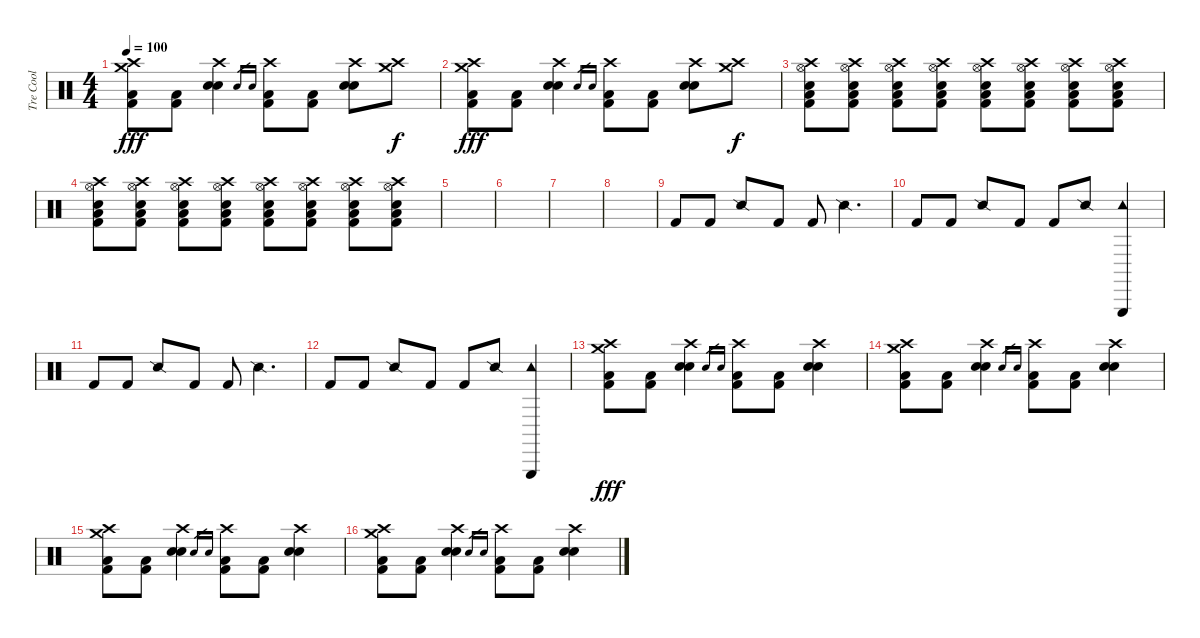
\track ("Tre Cool" "Tre Cool") {instrument percussion}
\staff {score}
\articulation defaults
\ts (4 4)
\tempo 100
\clef neutral
\ks c
("Crash high (hit)" "Crash medium (hit)" "Kick (hit) 2" "Low Floor Tom (hit)").8{dy fff} ("Kick (hit) 2" "Low Floor Tom (hit)").8 ("Crash high (hit)" "Electric Snare (hit)" "Electric Snare (hit)").4 "Electric Snare (hit)".16{gr} "Electric Snare (hit)".16{gr} ("Crash high (hit)" "Kick (hit) 2" "Low Floor Tom (hit)").8 ("Kick (hit) 2" "Low Floor Tom (hit)").8 ("Crash high (hit)" "Electric Snare (hit)" "Electric Snare (hit)").8 ("Crash high (hit)" "Crash medium (hit)").8{dy f} |
("Crash high (hit)" "Crash medium (hit)" "Kick (hit) 2" "Low Floor Tom (hit)").8{dy fff} ("Kick (hit) 2" "Low Floor Tom (hit)").8 ("Crash high (hit)" "Electric Snare (hit)" "Electric Snare (hit)").4 "Electric Snare (hit)".16{gr} "Electric Snare (hit)".16{gr} ("Crash high (hit)" "Kick (hit) 2" "Low Floor Tom (hit)").8 ("Kick (hit) 2" "Low Floor Tom (hit)").8 ("Crash high (hit)" "Electric Snare (hit)" "Electric Snare (hit)").8 ("Crash high (hit)" "Crash medium (hit)").8{dy f} |
("Crash high (hit)" "Hi-Hat (open)" "Electric Snare (hit)" "Kick (hit) 2" "Low Floor Tom (hit)").8 ("Crash high (hit)" "Hi-Hat (open)" "Electric Snare (hit)" "Kick (hit) 2" "Low Floor Tom (hit)").8 ("Crash high (hit)" "Hi-Hat (open)" "Electric Snare (hit)" "Kick (hit) 2" "Low Floor Tom (hit)").8 ("Crash high (hit)" "Hi-Hat (open)" "Electric Snare (hit)" "Kick (hit) 2" "Low Floor Tom (hit)").8 ("Crash high (hit)" "Hi-Hat (open)" "Electric Snare (hit)" "Kick (hit) 2" "Low Floor Tom (hit)").8 ("Crash high (hit)" "Hi-Hat (open)" "Electric Snare (hit)" "Kick (hit) 2" "Low Floor Tom (hit)").8 ("Crash high (hit)" "Hi-Hat (open)" "Electric Snare (hit)" "Kick (hit) 2" "Low Floor Tom (hit)").8 ("Crash high (hit)" "Hi-Hat (open)" "Electric Snare (hit)" "Kick (hit) 2" "Low Floor Tom (hit)").8 |
("Crash high (hit)" "Hi-Hat (open)" "Electric Snare (hit)" "Kick (hit) 2" "Low Floor Tom (hit)").8 ("Crash high (hit)" "Hi-Hat (open)" "Electric Snare (hit)" "Kick (hit) 2" "Low Floor Tom (hit)").8 ("Crash high (hit)" "Hi-Hat (open)" "Electric Snare (hit)" "Kick (hit) 2" "Low Floor Tom (hit)").8 ("Crash high (hit)" "Hi-Hat (open)" "Electric Snare (hit)" "Kick (hit) 2" "Low Floor Tom (hit)").8 ("Crash high (hit)" "Hi-Hat (open)" "Electric Snare (hit)" "Kick (hit) 2" "Low Floor Tom (hit)").8 ("Crash high (hit)" "Hi-Hat (open)" "Electric Snare (hit)" "Kick (hit) 2" "Low Floor Tom (hit)").8 ("Crash high (hit)" "Hi-Hat (open)" "Electric Snare (hit)" "Kick (hit) 2" "Low Floor Tom (hit)").8 ("Crash high (hit)" "Hi-Hat (open)" "Electric Snare (hit)" "Kick (hit) 2" "Low Floor Tom (hit)").8 |
|
|
|
|
"Kick (hit) 2".8 "Kick (hit) 2".8 "Snare (side stick) 2".8 "Kick (hit) 2".8 "Kick (hit) 2".8 "Snare (side stick) 2".4{d} |
"Kick (hit) 2".8 "Kick (hit) 2".8 "Snare (side stick) 2".8 "Kick (hit) 2".8 "Kick (hit) 2".8 "Snare (side stick) 2".8 ("Triangle (hit)" "Tambourine (hit)").4 |
"Kick (hit) 2".8 "Kick (hit) 2".8 "Snare (side stick) 2".8 "Kick (hit) 2".8 "Kick (hit) 2".8 "Snare (side stick) 2".4{d} |
"Kick (hit) 2".8 "Kick (hit) 2".8 "Snare (side stick) 2".8 "Kick (hit) 2".8 "Kick (hit) 2".8 "Snare (side stick) 2".8 ("Triangle (hit)" "Tambourine (hit)").4 |
("Crash high (hit)" "Crash medium (hit)" "Kick (hit) 2" "Low Floor Tom (hit)").8{dy fff} ("Kick (hit) 2" "Low Floor Tom (hit)").8 ("Crash high (hit)" "Electric Snare (hit)" "Electric Snare (hit)").4 "Electric Snare (hit)".16{gr} "Electric Snare (hit)".16{gr} ("Crash high (hit)" "Kick (hit) 2" "Low Floor Tom (hit)").8 ("Kick (hit) 2" "Low Floor Tom (hit)").8 ("Crash high (hit)" "Electric Snare (hit)" "Electric Snare (hit)").4 |
("Crash high (hit)" "Crash medium (hit)" "Kick (hit) 2" "Low Floor Tom (hit)").8 ("Kick (hit) 2" "Low Floor Tom (hit)").8 ("Crash high (hit)" "Electric Snare (hit)" "Electric Snare (hit)").4 "Electric Snare (hit)".16{gr} "Electric Snare (hit)".16{gr} ("Crash high (hit)" "Kick (hit) 2" "Low Floor Tom (hit)").8 ("Kick (hit) 2" "Low Floor Tom (hit)").8 ("Crash high (hit)" "Electric Snare (hit)" "Electric Snare (hit)").4 |
("Crash high (hit)" "Crash medium (hit)" "Kick (hit) 2" "Low Floor Tom (hit)").8 ("Kick (hit) 2" "Low Floor Tom (hit)").8 ("Crash high (hit)" "Electric Snare (hit)" "Electric Snare (hit)").4 "Electric Snare (hit)".16{gr} "Electric Snare (hit)".16{gr} ("Crash high (hit)" "Kick (hit) 2" "Low Floor Tom (hit)").8 ("Kick (hit) 2" "Low Floor Tom (hit)").8 ("Crash high (hit)" "Electric Snare (hit)" "Electric Snare (hit)").4 |
("Crash high (hit)" "Crash medium (hit)" "Kick (hit) 2" "Low Floor Tom (hit)").8 ("Kick (hit) 2" "Low Floor Tom (hit)").8 ("Crash high (hit)" "Electric Snare (hit)" "Electric Snare (hit)").4 "Electric Snare (hit)".16{gr} "Electric Snare (hit)".16{gr} ("Crash high (hit)" "Kick (hit) 2" "Low Floor Tom (hit)").8 ("Kick (hit) 2" "Low Floor Tom (hit)").8 ("Crash high (hit)" "Electric Snare (hit)" "Electric Snare (hit)").4
